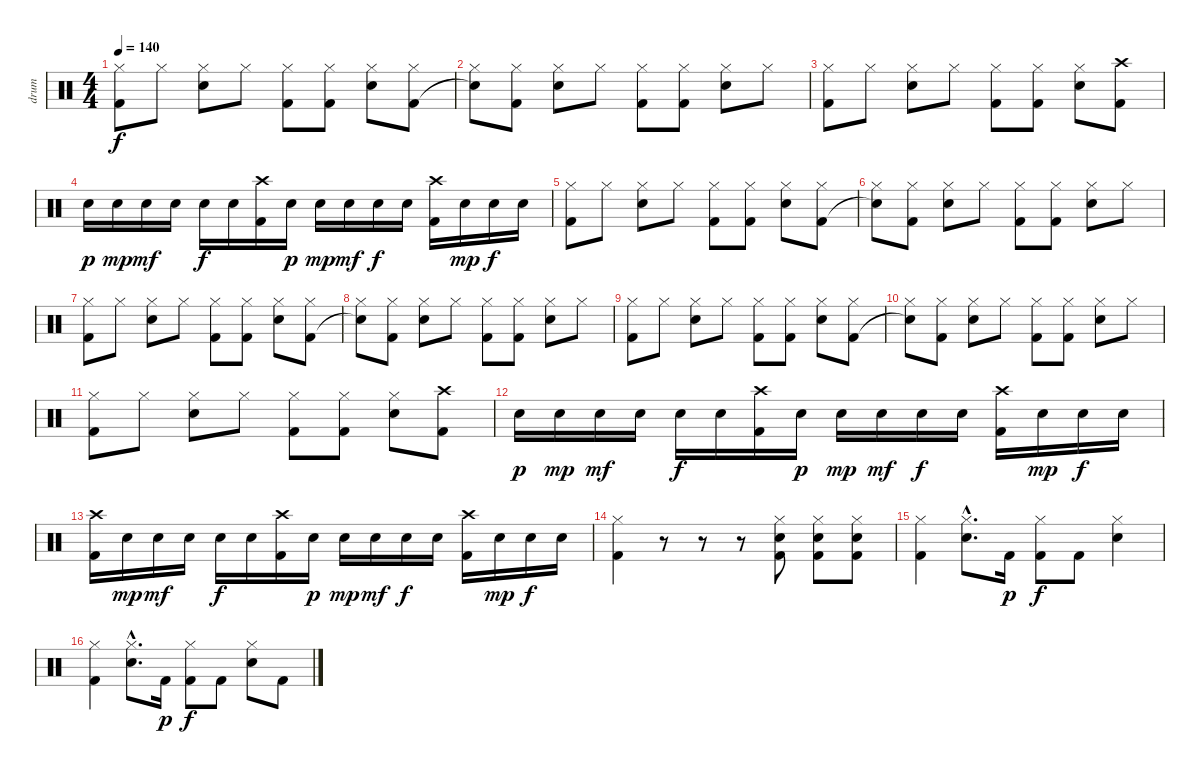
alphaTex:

\track ("drum" "drum") {instrument percussion}
\staff {score}
\articulation defaults
\ts (4 4)
\tempo 140
\clef neutral
\ks c
("Hi-Hat (closed)" "Kick (hit) 2").8{dy f} "Hi-Hat (closed)".8 ("Hi-Hat (closed)" "Snare (hit) 2").8 "Hi-Hat (closed)".8 ("Hi-Hat (closed)" "Kick (hit) 2").8 ("Hi-Hat (closed)" "Kick (hit) 2").8 ("Hi-Hat (closed)" "Snare (hit) 2").8 ("Hi-Hat (closed)" "Kick (hit) 2").8 |
("Hi-Hat (closed)" "Snare (hit)"{t}).8 ("Hi-Hat (closed)" "Kick (hit) 2").8 ("Hi-Hat (closed)" "Snare (hit) 2").8 "Hi-Hat (closed)".8 ("Hi-Hat (closed)" "Kick (hit) 2").8 ("Hi-Hat (closed)" "Kick (hit) 2").8 ("Hi-Hat (closed)" "Snare (hit) 2").8 "Hi-Hat (closed)".8 |
("Hi-Hat (closed)" "Kick (hit) 2").8 "Hi-Hat (closed)".8 ("Hi-Hat (closed)" "Snare (hit) 2").8 "Hi-Hat (closed)".8 ("Hi-Hat (closed)" "Kick (hit) 2").8 ("Hi-Hat (closed)" "Kick (hit) 2").8 ("Hi-Hat (closed)" "Snare (hit) 2").8 ("Crash high (hit)" "Kick (hit) 2").8 |
"Snare (hit) 2".16{dy p} "Snare (hit) 2".16{dy mp} "Snare (hit) 2".16{dy mf} "Snare (hit) 2".16 "Snare (hit) 2".16{dy f} "Snare (hit) 2".16 ("Crash high (hit)" "Kick (hit) 2").16 "Snare (hit) 2".16{dy p} "Snare (hit) 2".16{dy mp} "Snare (hit) 2".16{dy mf} "Snare (hit) 2".16{dy f} "Snare (hit) 2".16 ("Crash high (hit)" "Kick (hit) 2").16 "Snare (hit) 2".16{dy mp} "Snare (hit) 2".16{dy f} "Snare (hit) 2".16 |
("Hi-Hat (closed)" "Kick (hit) 2").8 "Hi-Hat (closed)".8 ("Hi-Hat (closed)" "Snare (hit) 2").8 "Hi-Hat (closed)".8 ("Hi-Hat (closed)" "Kick (hit) 2").8 ("Hi-Hat (closed)" "Kick (hit) 2").8 ("Hi-Hat (closed)" "Snare (hit) 2").8 ("Hi-Hat (closed)" "Kick (hit) 2").8 |
("Hi-Hat (closed)" "Snare (hit)"{t}).8 ("Hi-Hat (closed)" "Kick (hit) 2").8 ("Hi-Hat (closed)" "Snare (hit) 2").8 "Hi-Hat (closed)".8 ("Hi-Hat (closed)" "Kick (hit) 2").8 ("Hi-Hat (closed)" "Kick (hit) 2").8 ("Hi-Hat (closed)" "Snare (hit) 2").8 "Hi-Hat (closed)".8 |
("Hi-Hat (closed)" "Kick (hit) 2").8 "Hi-Hat (closed)".8 ("Hi-Hat (closed)" "Snare (hit) 2").8 "Hi-Hat (closed)".8 ("Hi-Hat (closed)" "Kick (hit) 2").8 ("Hi-Hat (closed)" "Kick (hit) 2").8 ("Hi-Hat (closed)" "Snare (hit) 2").8 ("Hi-Hat (closed)" "Kick (hit) 2").8 |
("Hi-Hat (closed)" "Snare (hit)"{t}).8 ("Hi-Hat (closed)" "Kick (hit) 2").8 ("Hi-Hat (closed)" "Snare (hit) 2").8 "Hi-Hat (closed)".8 ("Hi-Hat (closed)" "Kick (hit) 2").8 ("Hi-Hat (closed)" "Kick (hit) 2").8 ("Hi-Hat (closed)" "Snare (hit) 2").8 "Hi-Hat (closed)".8 |
("Hi-Hat (closed)" "Kick (hit) 2").8 "Hi-Hat (closed)".8 ("Hi-Hat (closed)" "Snare (hit) 2").8 "Hi-Hat (closed)".8 ("Hi-Hat (closed)" "Kick (hit) 2").8 ("Hi-Hat (closed)" "Kick (hit) 2").8 ("Hi-Hat (closed)" "Snare (hit) 2").8 ("Hi-Hat (closed)" "Kick (hit) 2").8 |
("Hi-Hat (closed)" "Snare (hit)"{t}).8 ("Hi-Hat (closed)" "Kick (hit) 2").8 ("Hi-Hat (closed)" "Snare (hit) 2").8 "Hi-Hat (closed)".8 ("Hi-Hat (closed)" "Kick (hit) 2").8 ("Hi-Hat (closed)" "Kick (hit) 2").8 ("Hi-Hat (closed)" "Snare (hit) 2").8 "Hi-Hat (closed)".8 |
("Hi-Hat (closed)" "Kick (hit) 2").8 "Hi-Hat (closed)".8 ("Hi-Hat (closed)" "Snare (hit) 2").8 "Hi-Hat (closed)".8 ("Hi-Hat (closed)" "Kick (hit) 2").8 ("Hi-Hat (closed)" "Kick (hit) 2").8 ("Hi-Hat (closed)" "Snare (hit) 2").8 ("Crash high (hit)" "Kick (hit) 2").8 |
"Snare (hit) 2".16{dy p} "Snare (hit) 2".16{dy mp} "Snare (hit) 2".16{dy mf} "Snare (hit) 2".16 "Snare (hit) 2".16{dy f} "Snare (hit) 2".16 ("Crash high (hit)" "Kick (hit) 2").16 "Snare (hit) 2".16{dy p} "Snare (hit) 2".16{dy mp} "Snare (hit) 2".16{dy mf} "Snare (hit) 2".16{dy f} "Snare (hit) 2".16 ("Crash high (hit)" "Kick (hit) 2").16 "Snare (hit) 2".16{dy mp} "Snare (hit) 2".16{dy f} "Snare (hit) 2".16 |
("Crash high (hit)" "Kick (hit) 2").16 "Snare (hit) 2".16{dy mp} "Snare (hit) 2".16{dy mf} "Snare (hit) 2".16 "Snare (hit) 2".16{dy f} "Snare (hit) 2".16 ("Crash high (hit)" "Kick (hit) 2").16 "Snare (hit) 2".16{dy p} "Snare (hit) 2".16{dy mp} "Snare (hit) 2".16{dy mf} "Snare (hit) 2".16{dy f} "Snare (hit) 2".16 ("Crash high (hit)" "Kick (hit) 2").16 "Snare (hit) 2".16{dy mp} "Snare (hit) 2".16{dy f} "Snare (hit) 2".16 |
("Hi-Hat (closed)" "Kick (hit) 2").4 r.8 r.8 r.8 ("Hi-Hat (closed)" "Snare (hit) 2" "Kick (hit) 2").8 ("Hi-Hat (closed)" "Snare (hit) 2" "Kick (hit) 2").8 ("Hi-Hat (closed)" "Snare (hit) 2" "Kick (hit) 2").8 |
("Hi-Hat (closed)" "Kick (hit) 2").4 ("Hi-Hat (closed)"{hac} "Snare (hit) 2"{hac}).8{d} "Kick (hit) 2".16{dy p} ("Hi-Hat (closed)" "Kick (hit) 2").8{dy f} "Kick (hit) 2".8 ("Hi-Hat (closed)" "Snare (hit) 2").4 |
("Hi-Hat (closed)" "Kick (hit) 2").4 ("Hi-Hat (closed)"{hac} "Snare (hit) 2"{hac}).8{d} "Kick (hit) 2".16{dy p} ("Hi-Hat (closed)" "Kick (hit) 2").8{dy f} "Kick (hit) 2".8 ("Hi-Hat (closed)" "Snare (hit) 2").8 "Kick (hit) 2".8
